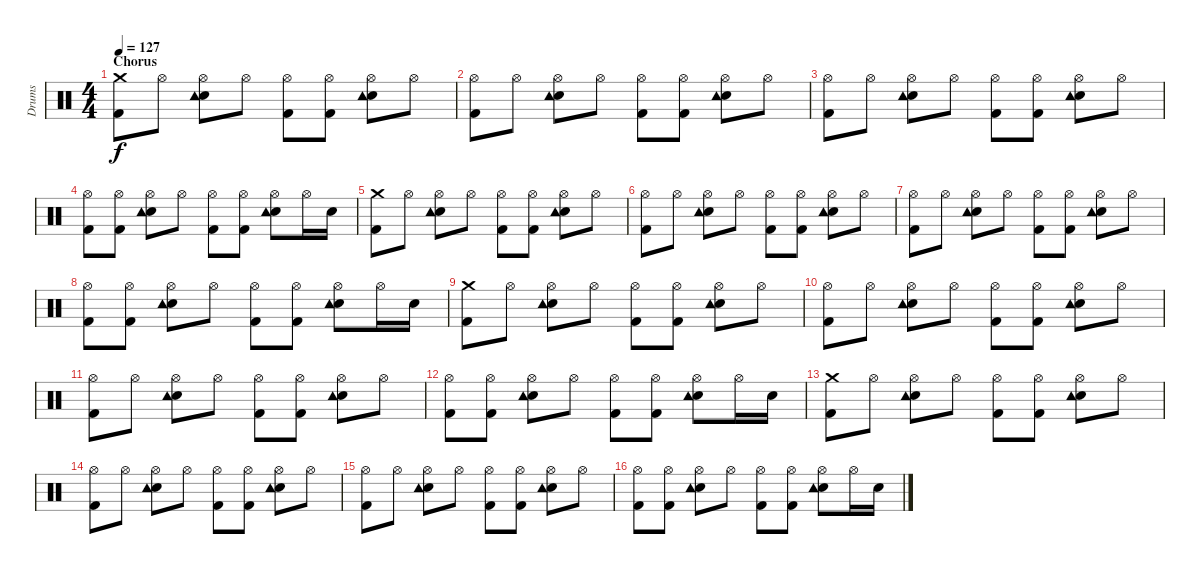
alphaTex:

\track ("Drums" "Drums") {instrument percussion}
\staff {score}
\articulation defaults
\ts (4 4)
\section ("" "Chorus")
\tempo 127
\clef neutral
\ks c
("Crash medium (hit)" "Kick (hit) 2").8{dy f} "Hi-Hat (open)".8 ("Hi-Hat (open)" "Snare (hit) 2" "Tambourine (hit)").8 "Hi-Hat (open)".8 ("Hi-Hat (open)" "Kick (hit) 2").8 ("Hi-Hat (open)" "Kick (hit) 2").8 ("Hi-Hat (open)" "Snare (hit) 2" "Tambourine (hit)").8 "Hi-Hat (open)".8 |
("Hi-Hat (open)" "Kick (hit) 2").8 "Hi-Hat (open)".8 ("Hi-Hat (open)" "Snare (hit) 2" "Tambourine (hit)").8 "Hi-Hat (open)".8 ("Hi-Hat (open)" "Kick (hit) 2").8 ("Hi-Hat (open)" "Kick (hit) 2").8 ("Hi-Hat (open)" "Snare (hit) 2" "Tambourine (hit)").8 "Hi-Hat (open)".8 |
("Hi-Hat (open)" "Kick (hit) 2").8 "Hi-Hat (open)".8 ("Hi-Hat (open)" "Snare (hit) 2" "Tambourine (hit)").8 "Hi-Hat (open)".8 ("Hi-Hat (open)" "Kick (hit) 2").8 ("Hi-Hat (open)" "Kick (hit) 2").8 ("Hi-Hat (open)" "Snare (hit) 2" "Tambourine (hit)").8 "Hi-Hat (open)".8 |
("Hi-Hat (open)" "Kick (hit) 2").8 ("Hi-Hat (open)" "Kick (hit) 2").8 ("Hi-Hat (open)" "Snare (hit) 2" "Tambourine (hit)").8 "Hi-Hat (open)".8 ("Hi-Hat (open)" "Kick (hit) 2").8 ("Hi-Hat (open)" "Kick (hit) 2").8 ("Hi-Hat (open)" "Snare (hit) 2" "Tambourine (hit)").8 "Hi-Hat (open)".16 "Snare (hit) 2".16 |
("Crash medium (hit)" "Kick (hit) 2").8 "Hi-Hat (open)".8 ("Hi-Hat (open)" "Snare (hit) 2" "Tambourine (hit)").8 "Hi-Hat (open)".8 ("Hi-Hat (open)" "Kick (hit) 2").8 ("Hi-Hat (open)" "Kick (hit) 2").8 ("Hi-Hat (open)" "Snare (hit) 2" "Tambourine (hit)").8 "Hi-Hat (open)".8 |
("Hi-Hat (open)" "Kick (hit) 2").8 "Hi-Hat (open)".8 ("Hi-Hat (open)" "Snare (hit) 2" "Tambourine (hit)").8 "Hi-Hat (open)".8 ("Hi-Hat (open)" "Kick (hit) 2").8 ("Hi-Hat (open)" "Kick (hit) 2").8 ("Hi-Hat (open)" "Snare (hit) 2" "Tambourine (hit)").8 "Hi-Hat (open)".8 |
("Hi-Hat (open)" "Kick (hit) 2").8 "Hi-Hat (open)".8 ("Hi-Hat (open)" "Snare (hit) 2" "Tambourine (hit)").8 "Hi-Hat (open)".8 ("Hi-Hat (open)" "Kick (hit) 2").8 ("Hi-Hat (open)" "Kick (hit) 2").8 ("Hi-Hat (open)" "Snare (hit) 2" "Tambourine (hit)").8 "Hi-Hat (open)".8 |
("Hi-Hat (open)" "Kick (hit) 2").8 ("Hi-Hat (open)" "Kick (hit) 2").8 ("Hi-Hat (open)" "Snare (hit) 2" "Tambourine (hit)").8 "Hi-Hat (open)".8 ("Hi-Hat (open)" "Kick (hit) 2").8 ("Hi-Hat (open)" "Kick (hit) 2").8 ("Hi-Hat (open)" "Snare (hit) 2" "Tambourine (hit)").8 "Hi-Hat (open)".16 "Snare (hit) 2".16 |
("Crash medium (hit)" "Kick (hit) 2").8 "Hi-Hat (open)".8 ("Hi-Hat (open)" "Snare (hit) 2" "Tambourine (hit)").8 "Hi-Hat (open)".8 ("Hi-Hat (open)" "Kick (hit) 2").8 ("Hi-Hat (open)" "Kick (hit) 2").8 ("Hi-Hat (open)" "Snare (hit) 2" "Tambourine (hit)").8 "Hi-Hat (open)".8 |
("Hi-Hat (open)" "Kick (hit) 2").8 "Hi-Hat (open)".8 ("Hi-Hat (open)" "Snare (hit) 2" "Tambourine (hit)").8 "Hi-Hat (open)".8 ("Hi-Hat (open)" "Kick (hit) 2").8 ("Hi-Hat (open)" "Kick (hit) 2").8 ("Hi-Hat (open)" "Snare (hit) 2" "Tambourine (hit)").8 "Hi-Hat (open)".8 |
("Hi-Hat (open)" "Kick (hit) 2").8 "Hi-Hat (open)".8 ("Hi-Hat (open)" "Snare (hit) 2" "Tambourine (hit)").8 "Hi-Hat (open)".8 ("Hi-Hat (open)" "Kick (hit) 2").8 ("Hi-Hat (open)" "Kick (hit) 2").8 ("Hi-Hat (open)" "Snare (hit) 2" "Tambourine (hit)").8 "Hi-Hat (open)".8 |
("Hi-Hat (open)" "Kick (hit) 2").8 ("Hi-Hat (open)" "Kick (hit) 2").8 ("Hi-Hat (open)" "Snare (hit) 2" "Tambourine (hit)").8 "Hi-Hat (open)".8 ("Hi-Hat (open)" "Kick (hit) 2").8 ("Hi-Hat (open)" "Kick (hit) 2").8 ("Hi-Hat (open)" "Snare (hit) 2" "Tambourine (hit)").8 "Hi-Hat (open)".16 "Snare (hit) 2".16 |
("Crash medium (hit)" "Kick (hit) 2").8 "Hi-Hat (open)".8 ("Hi-Hat (open)" "Snare (hit) 2" "Tambourine (hit)").8 "Hi-Hat (open)".8 ("Hi-Hat (open)" "Kick (hit) 2").8 ("Hi-Hat (open)" "Kick (hit) 2").8 ("Hi-Hat (open)" "Snare (hit) 2" "Tambourine (hit)").8 "Hi-Hat (open)".8 |
("Hi-Hat (open)" "Kick (hit) 2").8 "Hi-Hat (open)".8 ("Hi-Hat (open)" "Snare (hit) 2" "Tambourine (hit)").8 "Hi-Hat (open)".8 ("Hi-Hat (open)" "Kick (hit) 2").8 ("Hi-Hat (open)" "Kick (hit) 2").8 ("Hi-Hat (open)" "Snare (hit) 2" "Tambourine (hit)").8 "Hi-Hat (open)".8 |
("Hi-Hat (open)" "Kick (hit) 2").8 "Hi-Hat (open)".8 ("Hi-Hat (open)" "Snare (hit) 2" "Tambourine (hit)").8 "Hi-Hat (open)".8 ("Hi-Hat (open)" "Kick (hit) 2").8 ("Hi-Hat (open)" "Kick (hit) 2").8 ("Hi-Hat (open)" "Snare (hit) 2" "Tambourine (hit)").8 "Hi-Hat (open)".8 |
("Hi-Hat (open)" "Kick (hit) 2").8 ("Hi-Hat (open)" "Kick (hit) 2").8 ("Hi-Hat (open)" "Snare (hit) 2" "Tambourine (hit)").8 "Hi-Hat (open)".8 ("Hi-Hat (open)" "Kick (hit) 2").8 ("Hi-Hat (open)" "Kick (hit) 2").8 ("Hi-Hat (open)" "Snare (hit) 2" "Tambourine (hit)").8 "Hi-Hat (open)".16 "Snare (hit) 2".16
